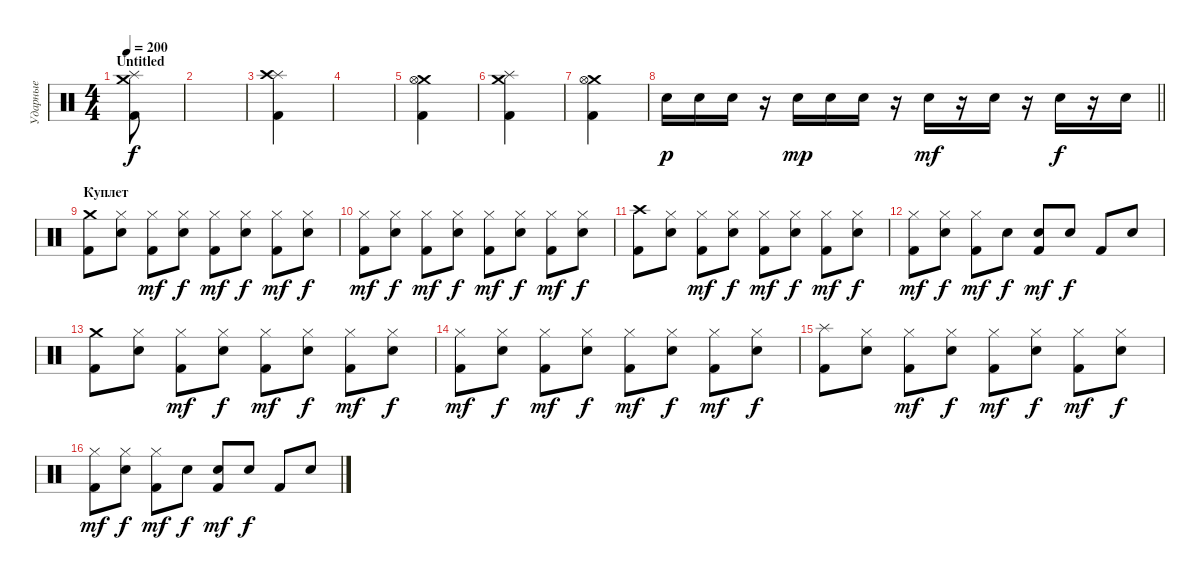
\track ("Ударные" "Ударные") {instrument percussion}
\staff {score}
\articulation defaults
\ts (4 4)
\section ("" "Untitled")
\tempo 200
\clef neutral
\ks c
("Crash medium (hit)" "Splash (hit)" "Kick (hit) 2").8{dy f} |
|
("Splash (hit)" "Crash high (hit)" "Kick (hit) 2").4 |
|
("Crash medium (hit)" "Hi-Hat (open)" "Kick (hit) 2").4 |
("Crash medium (hit)" "Splash (hit)" "Kick (hit) 2").4 |
("Crash medium (hit)" "Hi-Hat (open)" "Kick (hit) 2").4 |
\barLineRight lightlight "Snare (hit) 2".16{dy p} "Snare (hit) 2".16 "Snare (hit) 2".16
r.16 "Snare (hit) 2".16{dy mp} "Snare (hit) 2".16 "Snare (hit) 2".16 r.16 "Snare (hit) 2".16{dy mf} r.16 "Snare (hit) 2".16 r.16 "Snare (hit) 2".16{dy f} r.16 "Snare (hit) 2".16 |
\section ("" "Куплет")
("Crash medium (hit)" "Kick (hit) 2").8 ("Hi-Hat (closed)" "Snare (hit) 2").8 ("Hi-Hat (closed)" "Kick (hit) 2").8{dy mf} ("Hi-Hat (closed)" "Snare (hit) 2").8{dy f} ("Hi-Hat (closed)" "Kick (hit) 2").8{dy mf} ("Hi-Hat (closed)" "Snare (hit) 2").8{dy f} ("Hi-Hat (closed)" "Kick (hit) 2").8{dy mf} ("Hi-Hat (closed)" "Snare (hit) 2").8{dy f} |
("Hi-Hat (closed)" "Kick (hit) 2").8{dy mf} ("Hi-Hat (closed)" "Snare (hit) 2").8{dy f} ("Hi-Hat (closed)" "Kick (hit) 2").8{dy mf} ("Hi-Hat (closed)" "Snare (hit) 2").8{dy f} ("Hi-Hat (closed)" "Kick (hit) 2").8{dy mf} ("Hi-Hat (closed)" "Snare (hit) 2").8{dy f} ("Hi-Hat (closed)" "Kick (hit) 2").8{dy mf} ("Hi-Hat (closed)" "Snare (hit) 2").8{dy f} |
("Crash high (hit)" "Kick (hit) 2").8 ("Hi-Hat (closed)" "Snare (hit) 2").8 ("Hi-Hat (closed)" "Kick (hit) 2").8{dy mf} ("Hi-Hat (closed)" "Snare (hit) 2").8{dy f} ("Hi-Hat (closed)" "Kick (hit) 2").8{dy mf} ("Hi-Hat (closed)" "Snare (hit) 2").8{dy f} ("Hi-Hat (closed)" "Kick (hit) 2").8{dy mf} ("Hi-Hat (closed)" "Snare (hit) 2").8{dy f} |
("Hi-Hat (closed)" "Kick (hit) 2").8{dy mf} ("Hi-Hat (closed)" "Snare (hit) 2").8{dy f} ("Hi-Hat (closed)" "Kick (hit) 2").8{dy mf} "Snare (hit) 2".8{dy f} ("Snare (hit) 2" "Kick (hit) 2").8{dy mf} "Snare (hit) 2".8{dy f} "Kick (hit) 2".8 "Snare (hit) 2".8 |
("Crash medium (hit)" "Kick (hit) 2").8 ("Hi-Hat (closed)" "Snare (hit) 2").8 ("Hi-Hat (closed)" "Kick (hit) 2").8{dy mf} ("Hi-Hat (closed)" "Snare (hit) 2").8{dy f} ("Hi-Hat (closed)" "Kick (hit) 2").8{dy mf} ("Hi-Hat (closed)" "Snare (hit) 2").8{dy f} ("Hi-Hat (closed)" "Kick (hit) 2").8{dy mf} ("Hi-Hat (closed)" "Snare (hit) 2").8{dy f} |
("Hi-Hat (closed)" "Kick (hit) 2").8{dy mf} ("Hi-Hat (closed)" "Snare (hit) 2").8{dy f} ("Hi-Hat (closed)" "Kick (hit) 2").8{dy mf} ("Hi-Hat (closed)" "Snare (hit) 2").8{dy f} ("Hi-Hat (closed)" "Kick (hit) 2").8{dy mf} ("Hi-Hat (closed)" "Snare (hit) 2").8{dy f} ("Hi-Hat (closed)" "Kick (hit) 2").8{dy mf} ("Hi-Hat (closed)" "Snare (hit) 2").8{dy f} |
("Splash (hit)" "Kick (hit) 2").8 ("Hi-Hat (closed)" "Snare (hit) 2").8 ("Hi-Hat (closed)" "Kick (hit) 2").8{dy mf} ("Hi-Hat (closed)" "Snare (hit) 2").8{dy f} ("Hi-Hat (closed)" "Kick (hit) 2").8{dy mf} ("Hi-Hat (closed)" "Snare (hit) 2").8{dy f} ("Hi-Hat (closed)" "Kick (hit) 2").8{dy mf} ("Hi-Hat (closed)" "Snare (hit) 2").8{dy f} |
("Hi-Hat (closed)" "Kick (hit) 2").8{dy mf} ("Hi-Hat (closed)" "Snare (hit) 2").8{dy f} ("Hi-Hat (closed)" "Kick (hit) 2").8{dy mf} "Snare (hit) 2".8{dy f} ("Snare (hit) 2" "Kick (hit) 2").8{dy mf} "Snare (hit) 2".8{dy f} "Kick (hit) 2".8 "Snare (hit) 2".8
